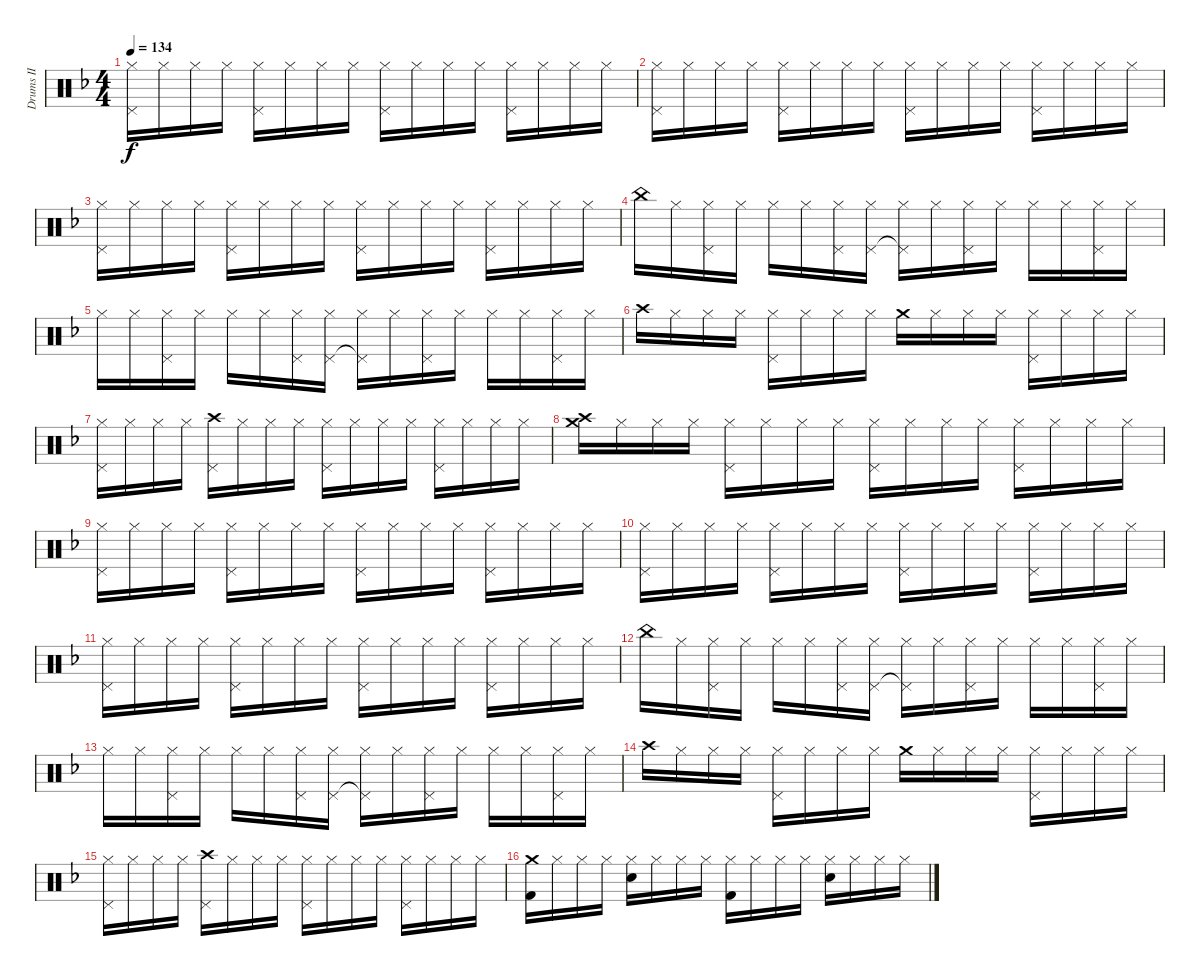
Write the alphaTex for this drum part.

\track ("Drums II" "Drums II") {instrument percussion}
\staff {score}
\articulation defaults
\ts (4 4)
\tempo 134
\clef neutral
\ks f
("Hi-Hat (closed)" "Pedal Hi-Hat (hit)").16{dy f} "Hi-Hat (closed)".16 "Hi-Hat (closed)".16 "Hi-Hat (closed)".16 ("Hi-Hat (closed)" "Pedal Hi-Hat (hit)").16 "Hi-Hat (closed)".16 "Hi-Hat (closed)".16 "Hi-Hat (closed)".16 ("Hi-Hat (closed)" "Pedal Hi-Hat (hit)").16 "Hi-Hat (closed)".16 "Hi-Hat (closed)".16 "Hi-Hat (closed)".16 ("Hi-Hat (closed)" "Pedal Hi-Hat (hit)").16 "Hi-Hat (closed)".16 "Hi-Hat (closed)".16 "Hi-Hat (closed)".16 |
("Hi-Hat (closed)" "Pedal Hi-Hat (hit)").16 "Hi-Hat (closed)".16 "Hi-Hat (closed)".16 "Hi-Hat (closed)".16 ("Hi-Hat (closed)" "Pedal Hi-Hat (hit)").16 "Hi-Hat (closed)".16 "Hi-Hat (closed)".16 "Hi-Hat (closed)".16 ("Hi-Hat (closed)" "Pedal Hi-Hat (hit)").16 "Hi-Hat (closed)".16 "Hi-Hat (closed)".16 "Hi-Hat (closed)".16 ("Hi-Hat (closed)" "Pedal Hi-Hat (hit)").16 "Hi-Hat (closed)".16 "Hi-Hat (closed)".16 "Hi-Hat (closed)".16 |
("Hi-Hat (closed)" "Pedal Hi-Hat (hit)").16 "Hi-Hat (closed)".16 "Hi-Hat (closed)".16 "Hi-Hat (closed)".16 ("Hi-Hat (closed)" "Pedal Hi-Hat (hit)").16 "Hi-Hat (closed)".16 "Hi-Hat (closed)".16 "Hi-Hat (closed)".16 ("Hi-Hat (closed)" "Pedal Hi-Hat (hit)").16 "Hi-Hat (closed)".16 "Hi-Hat (closed)".16 "Hi-Hat (closed)".16 ("Hi-Hat (closed)" "Pedal Hi-Hat (hit)").16 "Hi-Hat (closed)".16 "Hi-Hat (closed)".16 "Hi-Hat (closed)".16 |
"China (hit)".16 "Hi-Hat (closed)".16 ("Hi-Hat (closed)" "Pedal Hi-Hat (hit)").16 "Hi-Hat (closed)".16 "Hi-Hat (closed)".16 "Hi-Hat (closed)".16 ("Hi-Hat (closed)" "Pedal Hi-Hat (hit)").16 ("Hi-Hat (closed)" "Pedal Hi-Hat (hit)").16 ("Hi-Hat (closed)" "Pedal Hi-Hat (hit)"{t}).16 "Hi-Hat (closed)".16 ("Hi-Hat (closed)" "Pedal Hi-Hat (hit)").16 "Hi-Hat (closed)".16 "Hi-Hat (closed)".16 "Hi-Hat (closed)".16 ("Hi-Hat (closed)" "Pedal Hi-Hat (hit)").16 "Hi-Hat (closed)".16 |
"Hi-Hat (closed)".16 "Hi-Hat (closed)".16 ("Hi-Hat (closed)" "Pedal Hi-Hat (hit)").16 "Hi-Hat (closed)".16 "Hi-Hat (closed)".16 "Hi-Hat (closed)".16 ("Hi-Hat (closed)" "Pedal Hi-Hat (hit)").16 ("Hi-Hat (closed)" "Pedal Hi-Hat (hit)").16 ("Hi-Hat (closed)" "Pedal Hi-Hat (hit)"{t}).16 "Hi-Hat (closed)".16 ("Hi-Hat (closed)" "Pedal Hi-Hat (hit)").16 "Hi-Hat (closed)".16 "Hi-Hat (closed)".16 "Hi-Hat (closed)".16 ("Hi-Hat (closed)" "Pedal Hi-Hat (hit)").16 "Hi-Hat (closed)".16 |
"Crash high (hit)".16 "Hi-Hat (closed)".16 "Hi-Hat (closed)".16 "Hi-Hat (closed)".16 ("Hi-Hat (closed)" "Pedal Hi-Hat (hit)").16 "Hi-Hat (closed)".16 "Hi-Hat (closed)".16 "Hi-Hat (closed)".16 "Crash medium (hit)".16 "Hi-Hat (closed)".16 "Hi-Hat (closed)".16 "Hi-Hat (closed)".16 ("Hi-Hat (closed)" "Pedal Hi-Hat (hit)").16 "Hi-Hat (closed)".16 "Hi-Hat (closed)".16 "Hi-Hat (closed)".16 |
("Hi-Hat (closed)" "Pedal Hi-Hat (hit)").16 "Hi-Hat (closed)".16 "Hi-Hat (closed)".16 "Hi-Hat (closed)".16 ("Crash high (hit)" "Pedal Hi-Hat (hit)").16 "Hi-Hat (closed)".16 "Hi-Hat (closed)".16 "Hi-Hat (closed)".16 ("Hi-Hat (closed)" "Pedal Hi-Hat (hit)").16 "Hi-Hat (closed)".16 "Hi-Hat (closed)".16 "Hi-Hat (closed)".16 ("Hi-Hat (closed)" "Pedal Hi-Hat (hit)").16 "Hi-Hat (closed)".16 "Hi-Hat (closed)".16 "Hi-Hat (closed)".16 |
("Crash medium (hit)" "Crash high (hit)").16 "Hi-Hat (closed)".16 "Hi-Hat (closed)".16 "Hi-Hat (closed)".16 ("Hi-Hat (closed)" "Pedal Hi-Hat (hit)").16 "Hi-Hat (closed)".16 "Hi-Hat (closed)".16 "Hi-Hat (closed)".16 ("Hi-Hat (closed)" "Pedal Hi-Hat (hit)").16 "Hi-Hat (closed)".16 "Hi-Hat (closed)".16 "Hi-Hat (closed)".16 ("Hi-Hat (closed)" "Pedal Hi-Hat (hit)").16 "Hi-Hat (closed)".16 "Hi-Hat (closed)".16 "Hi-Hat (closed)".16 |
("Hi-Hat (closed)" "Pedal Hi-Hat (hit)").16 "Hi-Hat (closed)".16 "Hi-Hat (closed)".16 "Hi-Hat (closed)".16 ("Hi-Hat (closed)" "Pedal Hi-Hat (hit)").16 "Hi-Hat (closed)".16 "Hi-Hat (closed)".16 "Hi-Hat (closed)".16 ("Hi-Hat (closed)" "Pedal Hi-Hat (hit)").16 "Hi-Hat (closed)".16 "Hi-Hat (closed)".16 "Hi-Hat (closed)".16 ("Hi-Hat (closed)" "Pedal Hi-Hat (hit)").16 "Hi-Hat (closed)".16 "Hi-Hat (closed)".16 "Hi-Hat (closed)".16 |
("Hi-Hat (closed)" "Pedal Hi-Hat (hit)").16 "Hi-Hat (closed)".16 "Hi-Hat (closed)".16 "Hi-Hat (closed)".16 ("Hi-Hat (closed)" "Pedal Hi-Hat (hit)").16 "Hi-Hat (closed)".16 "Hi-Hat (closed)".16 "Hi-Hat (closed)".16 ("Hi-Hat (closed)" "Pedal Hi-Hat (hit)").16 "Hi-Hat (closed)".16 "Hi-Hat (closed)".16 "Hi-Hat (closed)".16 ("Hi-Hat (closed)" "Pedal Hi-Hat (hit)").16 "Hi-Hat (closed)".16 "Hi-Hat (closed)".16 "Hi-Hat (closed)".16 |
("Hi-Hat (closed)" "Pedal Hi-Hat (hit)").16 "Hi-Hat (closed)".16 "Hi-Hat (closed)".16 "Hi-Hat (closed)".16 ("Hi-Hat (closed)" "Pedal Hi-Hat (hit)").16 "Hi-Hat (closed)".16 "Hi-Hat (closed)".16 "Hi-Hat (closed)".16 ("Hi-Hat (closed)" "Pedal Hi-Hat (hit)").16 "Hi-Hat (closed)".16 "Hi-Hat (closed)".16 "Hi-Hat (closed)".16 ("Hi-Hat (closed)" "Pedal Hi-Hat (hit)").16 "Hi-Hat (closed)".16 "Hi-Hat (closed)".16 "Hi-Hat (closed)".16 |
"China (hit)".16 "Hi-Hat (closed)".16 ("Hi-Hat (closed)" "Pedal Hi-Hat (hit)").16 "Hi-Hat (closed)".16 "Hi-Hat (closed)".16 "Hi-Hat (closed)".16 ("Hi-Hat (closed)" "Pedal Hi-Hat (hit)").16 ("Hi-Hat (closed)" "Pedal Hi-Hat (hit)").16 ("Hi-Hat (closed)" "Pedal Hi-Hat (hit)"{t}).16 "Hi-Hat (closed)".16 ("Hi-Hat (closed)" "Pedal Hi-Hat (hit)").16 "Hi-Hat (closed)".16 "Hi-Hat (closed)".16 "Hi-Hat (closed)".16 ("Hi-Hat (closed)" "Pedal Hi-Hat (hit)").16 "Hi-Hat (closed)".16 |
"Hi-Hat (closed)".16 "Hi-Hat (closed)".16 ("Hi-Hat (closed)" "Pedal Hi-Hat (hit)").16 "Hi-Hat (closed)".16 "Hi-Hat (closed)".16 "Hi-Hat (closed)".16 ("Hi-Hat (closed)" "Pedal Hi-Hat (hit)").16 ("Hi-Hat (closed)" "Pedal Hi-Hat (hit)").16 ("Hi-Hat (closed)" "Pedal Hi-Hat (hit)"{t}).16 "Hi-Hat (closed)".16 ("Hi-Hat (closed)" "Pedal Hi-Hat (hit)").16 "Hi-Hat (closed)".16 "Hi-Hat (closed)".16 "Hi-Hat (closed)".16 ("Hi-Hat (closed)" "Pedal Hi-Hat (hit)").16 "Hi-Hat (closed)".16 |
"Crash high (hit)".16 "Hi-Hat (closed)".16 "Hi-Hat (closed)".16 "Hi-Hat (closed)".16 ("Hi-Hat (closed)" "Pedal Hi-Hat (hit)").16 "Hi-Hat (closed)".16 "Hi-Hat (closed)".16 "Hi-Hat (closed)".16 "Crash medium (hit)".16 "Hi-Hat (closed)".16 "Hi-Hat (closed)".16 "Hi-Hat (closed)".16 ("Hi-Hat (closed)" "Pedal Hi-Hat (hit)").16 "Hi-Hat (closed)".16 "Hi-Hat (closed)".16 "Hi-Hat (closed)".16 |
("Hi-Hat (closed)" "Pedal Hi-Hat (hit)").16 "Hi-Hat (closed)".16 "Hi-Hat (closed)".16 "Hi-Hat (closed)".16 ("Crash high (hit)" "Pedal Hi-Hat (hit)").16 "Hi-Hat (closed)".16 "Hi-Hat (closed)".16 "Hi-Hat (closed)".16 ("Hi-Hat (closed)" "Pedal Hi-Hat (hit)").16 "Hi-Hat (closed)".16 "Hi-Hat (closed)".16 "Hi-Hat (closed)".16 ("Hi-Hat (closed)" "Pedal Hi-Hat (hit)").16 "Hi-Hat (closed)".16 "Hi-Hat (closed)".16 "Hi-Hat (closed)".16 |
("Crash medium (hit)" "Kick (hit) 2").16 "Hi-Hat (closed)".16 "Hi-Hat (closed)".16 "Hi-Hat (closed)".16 ("Hi-Hat (closed)" "Snare (hit) 2").16 "Hi-Hat (closed)".16 "Hi-Hat (closed)".16 "Hi-Hat (closed)".16 ("Hi-Hat (closed)" "Kick (hit) 2").16 "Hi-Hat (closed)".16 "Hi-Hat (closed)".16 "Hi-Hat (closed)".16 ("Hi-Hat (closed)" "Snare (hit) 2").16 "Hi-Hat (closed)".16 "Hi-Hat (closed)".16 "Hi-Hat (closed)".16
